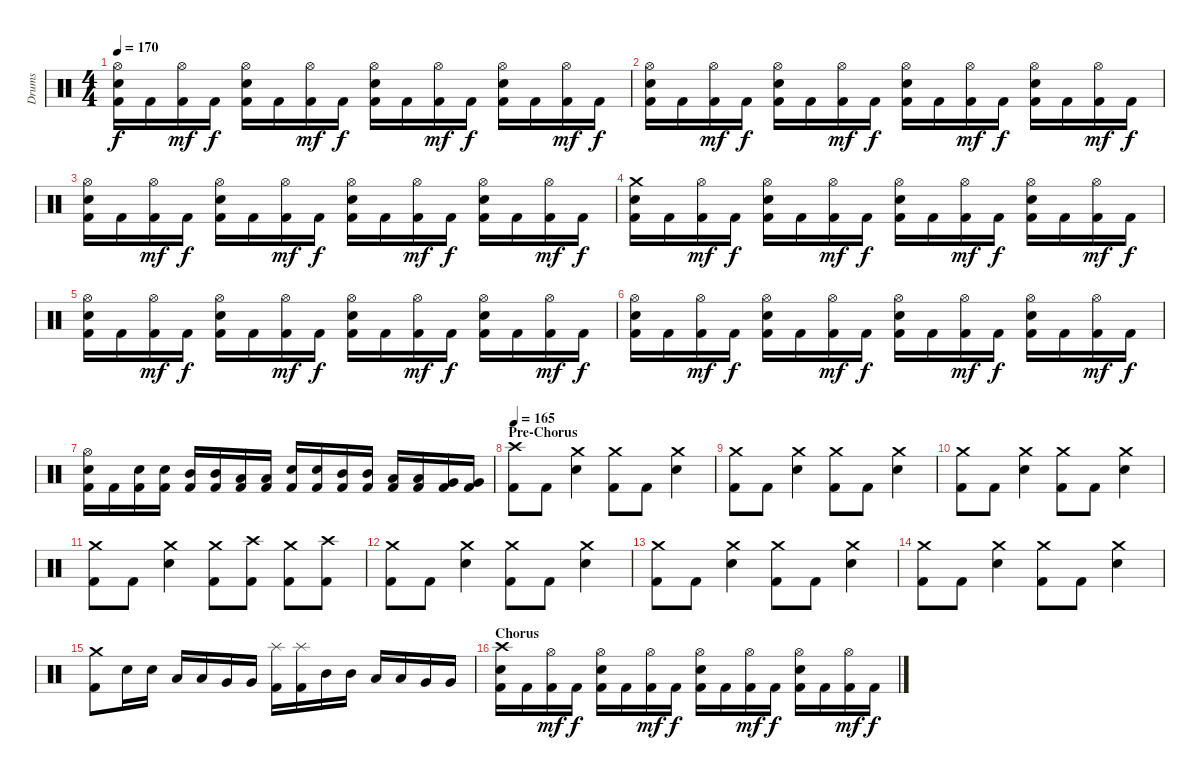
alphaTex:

\track ("Drums" "Drums") {instrument percussion}
\staff {score}
\articulation defaults
\ts (4 4)
\tempo 170
\clef neutral
\ks c
("Kick (hit) 2" "Electric Snare (hit)" "Hi-Hat (open)").16{dy f} "Kick (hit) 2".16 ("Kick (hit) 2" "Hi-Hat (open)").16{dy mf} "Kick (hit) 2".16{dy f} ("Kick (hit) 2" "Electric Snare (hit)" "Hi-Hat (open)").16 "Kick (hit) 2".16 ("Kick (hit) 2" "Hi-Hat (open)").16{dy mf} "Kick (hit) 2".16{dy f} ("Kick (hit) 2" "Electric Snare (hit)" "Hi-Hat (open)").16 "Kick (hit) 2".16 ("Kick (hit) 2" "Hi-Hat (open)").16{dy mf} "Kick (hit) 2".16{dy f} ("Kick (hit) 2" "Electric Snare (hit)" "Hi-Hat (open)").16 "Kick (hit) 2".16 ("Kick (hit) 2" "Hi-Hat (open)").16{dy mf} "Kick (hit) 2".16{dy f} |
("Kick (hit) 2" "Electric Snare (hit)" "Hi-Hat (open)").16 "Kick (hit) 2".16 ("Kick (hit) 2" "Hi-Hat (open)").16{dy mf} "Kick (hit) 2".16{dy f} ("Kick (hit) 2" "Electric Snare (hit)" "Hi-Hat (open)").16 "Kick (hit) 2".16 ("Kick (hit) 2" "Hi-Hat (open)").16{dy mf} "Kick (hit) 2".16{dy f} ("Kick (hit) 2" "Electric Snare (hit)" "Hi-Hat (open)").16 "Kick (hit) 2".16 ("Kick (hit) 2" "Hi-Hat (open)").16{dy mf} "Kick (hit) 2".16{dy f} ("Kick (hit) 2" "Electric Snare (hit)" "Hi-Hat (open)").16 "Kick (hit) 2".16 ("Kick (hit) 2" "Hi-Hat (open)").16{dy mf} "Kick (hit) 2".16{dy f} |
("Kick (hit) 2" "Electric Snare (hit)" "Hi-Hat (open)").16 "Kick (hit) 2".16 ("Kick (hit) 2" "Hi-Hat (open)").16{dy mf} "Kick (hit) 2".16{dy f} ("Kick (hit) 2" "Electric Snare (hit)" "Hi-Hat (open)").16 "Kick (hit) 2".16 ("Kick (hit) 2" "Hi-Hat (open)").16{dy mf} "Kick (hit) 2".16{dy f} ("Kick (hit) 2" "Electric Snare (hit)" "Hi-Hat (open)").16 "Kick (hit) 2".16 ("Kick (hit) 2" "Hi-Hat (open)").16{dy mf} "Kick (hit) 2".16{dy f} ("Kick (hit) 2" "Electric Snare (hit)" "Hi-Hat (open)").16 "Kick (hit) 2".16 ("Kick (hit) 2" "Hi-Hat (open)").16{dy mf} "Kick (hit) 2".16{dy f} |
("Kick (hit) 2" "Electric Snare (hit)" "Crash medium (hit)").16 "Kick (hit) 2".16 ("Kick (hit) 2" "Hi-Hat (open)").16{dy mf} "Kick (hit) 2".16{dy f} ("Kick (hit) 2" "Electric Snare (hit)" "Hi-Hat (open)").16 "Kick (hit) 2".16 ("Kick (hit) 2" "Hi-Hat (open)").16{dy mf} "Kick (hit) 2".16{dy f} ("Kick (hit) 2" "Electric Snare (hit)" "Hi-Hat (open)").16 "Kick (hit) 2".16 ("Kick (hit) 2" "Hi-Hat (open)").16{dy mf} "Kick (hit) 2".16{dy f} ("Kick (hit) 2" "Electric Snare (hit)" "Hi-Hat (open)").16 "Kick (hit) 2".16 ("Kick (hit) 2" "Hi-Hat (open)").16{dy mf} "Kick (hit) 2".16{dy f} |
("Kick (hit) 2" "Electric Snare (hit)" "Hi-Hat (open)").16 "Kick (hit) 2".16 ("Kick (hit) 2" "Hi-Hat (open)").16{dy mf} "Kick (hit) 2".16{dy f} ("Kick (hit) 2" "Electric Snare (hit)" "Hi-Hat (open)").16 "Kick (hit) 2".16 ("Kick (hit) 2" "Hi-Hat (open)").16{dy mf} "Kick (hit) 2".16{dy f} ("Kick (hit) 2" "Electric Snare (hit)" "Hi-Hat (open)").16 "Kick (hit) 2".16 ("Kick (hit) 2" "Hi-Hat (open)").16{dy mf} "Kick (hit) 2".16{dy f} ("Kick (hit) 2" "Electric Snare (hit)" "Hi-Hat (open)").16 "Kick (hit) 2".16 ("Kick (hit) 2" "Hi-Hat (open)").16{dy mf} "Kick (hit) 2".16{dy f} |
("Kick (hit) 2" "Electric Snare (hit)" "Hi-Hat (open)").16 "Kick (hit) 2".16 ("Kick (hit) 2" "Hi-Hat (open)").16{dy mf} "Kick (hit) 2".16{dy f} ("Kick (hit) 2" "Electric Snare (hit)" "Hi-Hat (open)").16 "Kick (hit) 2".16 ("Kick (hit) 2" "Hi-Hat (open)").16{dy mf} "Kick (hit) 2".16{dy f} ("Kick (hit) 2" "Electric Snare (hit)" "Hi-Hat (open)").16 "Kick (hit) 2".16 ("Kick (hit) 2" "Hi-Hat (open)").16{dy mf} "Kick (hit) 2".16{dy f} ("Kick (hit) 2" "Electric Snare (hit)" "Hi-Hat (open)").16 "Kick (hit) 2".16 ("Kick (hit) 2" "Hi-Hat (open)").16{dy mf} "Kick (hit) 2".16{dy f} |
("Kick (hit) 2" "Electric Snare (hit)" "Hi-Hat (open)").16 "Kick (hit) 2".16 ("Kick (hit) 2" "Electric Snare (hit)").16 ("Kick (hit) 2" "Electric Snare (hit)").16 ("Kick (hit) 2" "Mid Tom (hit)").16 ("Kick (hit) 2" "Mid Tom (hit)").16 ("Kick (hit) 2" "Low Tom (hit)").16 ("Kick (hit) 2" "Low Tom (hit)").16 ("Kick (hit) 2" "Electric Snare (hit)").16 ("Kick (hit) 2" "Electric Snare (hit)").16 ("Kick (hit) 2" "Mid Tom (hit)").16 ("Kick (hit) 2" "Mid Tom (hit)").16 ("Kick (hit) 2" "Low Tom (hit)").16 ("Kick (hit) 2" "Low Tom (hit)").16 ("Kick (hit) 2" "Very Low Tom (hit)").16 ("Kick (hit) 2" "Very Low Tom (hit)").16 |
\section ("" "Pre-Chorus")
\tempo 165
("Kick (hit) 2" "Crash high (hit)").8 "Kick (hit) 2".8 ("Electric Snare (hit)" "Crash medium (hit)").4 ("Kick (hit) 2" "Crash medium (hit)").8 "Kick (hit) 2".8 ("Electric Snare (hit)" "Crash medium (hit)").4 |
("Kick (hit) 2" "Crash medium (hit)").8 "Kick (hit) 2".8 ("Electric Snare (hit)" "Crash medium (hit)").4 ("Kick (hit) 2" "Crash medium (hit)").8 "Kick (hit) 2".8 ("Electric Snare (hit)" "Crash medium (hit)").4 |
("Kick (hit) 2" "Crash medium (hit)").8 "Kick (hit) 2".8 ("Electric Snare (hit)" "Crash medium (hit)").4 ("Kick (hit) 2" "Crash medium (hit)").8 "Kick (hit) 2".8 ("Electric Snare (hit)" "Crash medium (hit)").4 |
("Kick (hit) 2" "Crash medium (hit)").8 "Kick (hit) 2".8 ("Electric Snare (hit)" "Crash medium (hit)").4 ("Kick (hit) 2" "Crash medium (hit)").8 ("Kick (hit) 2" "Crash high (hit)").8 ("Kick (hit) 2" "Crash medium (hit)").8 ("Kick (hit) 2" "Crash high (hit)").8 |
("Kick (hit) 2" "Crash medium (hit)").8 "Kick (hit) 2".8 ("Electric Snare (hit)" "Crash medium (hit)").4 ("Kick (hit) 2" "Crash medium (hit)").8 "Kick (hit) 2".8 ("Electric Snare (hit)" "Crash medium (hit)").4 |
("Kick (hit) 2" "Crash medium (hit)").8 "Kick (hit) 2".8 ("Electric Snare (hit)" "Crash medium (hit)").4 ("Kick (hit) 2" "Crash medium (hit)").8 "Kick (hit) 2".8 ("Electric Snare (hit)" "Crash medium (hit)").4 |
("Kick (hit) 2" "Crash medium (hit)").8 "Kick (hit) 2".8 ("Electric Snare (hit)" "Crash medium (hit)").4 ("Kick (hit) 2" "Crash medium (hit)").8 "Kick (hit) 2".8 ("Electric Snare (hit)" "Crash medium (hit)").4 |
("Kick (hit) 2" "Crash medium (hit)").8 "Electric Snare (hit)".16 "Electric Snare (hit)".16 "Low Tom (hit)".16 "Low Tom (hit)".16 "Very Low Tom (hit)".16 "Very Low Tom (hit)".16 ("Kick (hit) 2" "Splash (hit)").16 ("Kick (hit) 2" "Splash (hit)").16 "Mid Tom (hit)".16 "Mid Tom (hit)".16 "Low Tom (hit)".16 "Low Tom (hit)".16 "Very Low Tom (hit)".16 "Very Low Tom (hit)".16 |
\section ("" "Chorus")
("Kick (hit) 2" "Electric Snare (hit)" "Crash high (hit)").16 "Kick (hit) 2".16 ("Kick (hit) 2" "Hi-Hat (open)").16{dy mf} "Kick (hit) 2".16{dy f} ("Kick (hit) 2" "Electric Snare (hit)" "Hi-Hat (open)").16 "Kick (hit) 2".16 ("Kick (hit) 2" "Hi-Hat (open)").16{dy mf} "Kick (hit) 2".16{dy f} ("Kick (hit) 2" "Electric Snare (hit)" "Hi-Hat (open)").16 "Kick (hit) 2".16 ("Kick (hit) 2" "Hi-Hat (open)").16{dy mf} "Kick (hit) 2".16{dy f} ("Kick (hit) 2" "Electric Snare (hit)" "Hi-Hat (open)").16 "Kick (hit) 2".16 ("Kick (hit) 2" "Hi-Hat (open)").16{dy mf} "Kick (hit) 2".16{dy f}
